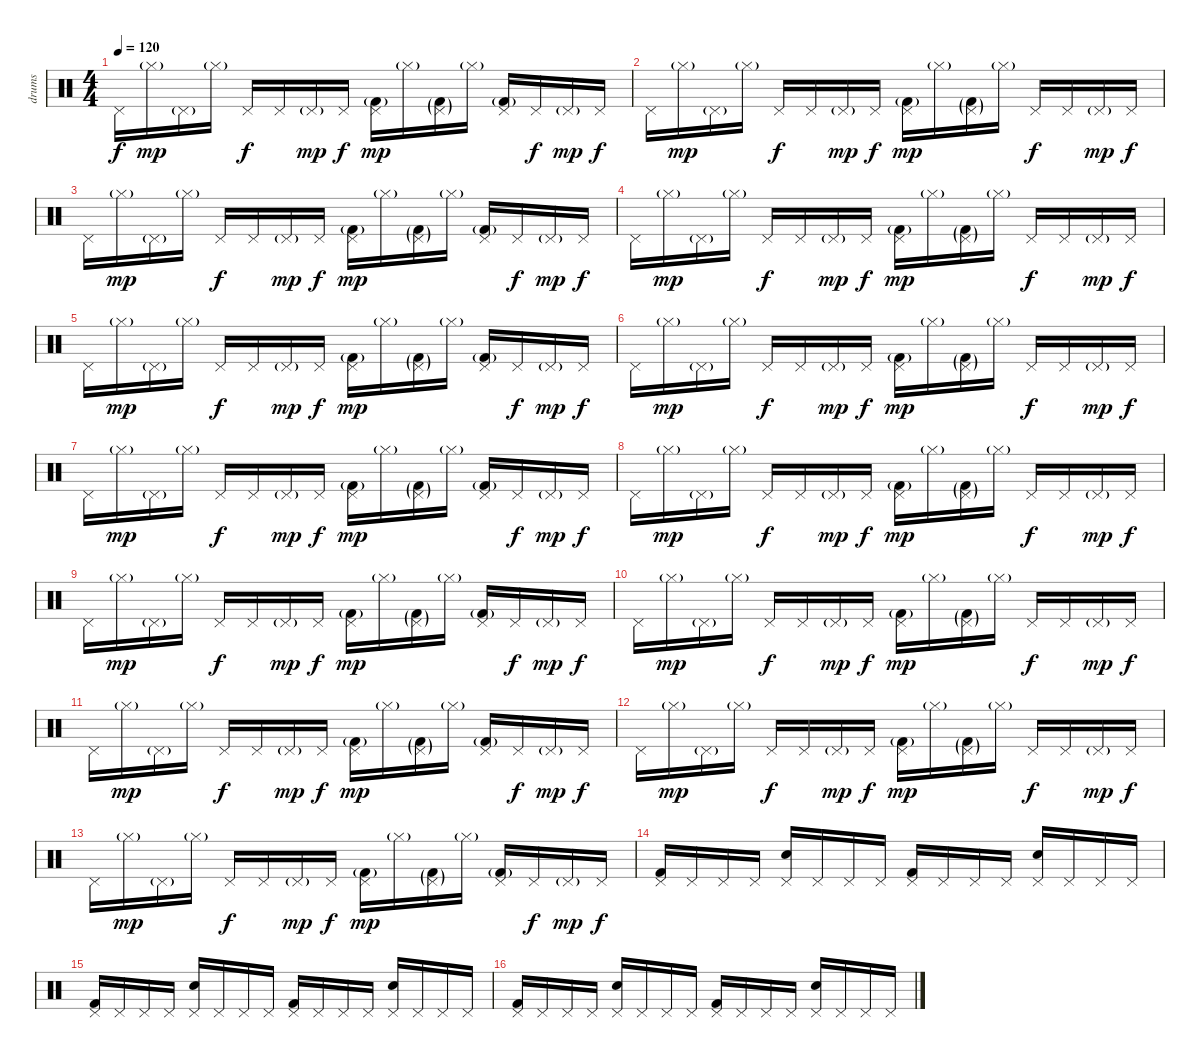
\track ("drums" "drums") {instrument percussion}
\staff {score}
\articulation defaults
\ts (4 4)
\tempo 120
\clef neutral
\ks c "Pedal Hi-Hat (hit)".16{dy f} "Hi-Hat (closed)"{g}.16{dy mp} "Pedal Hi-Hat (hit)"{g}.16 "Hi-Hat (closed)"{g}.16 "Pedal Hi-Hat (hit)".16{dy f} "Pedal Hi-Hat (hit)".16 "Pedal Hi-Hat (hit)"{g}.16{dy mp} "Pedal Hi-Hat (hit)".16{dy f}
("Kick (hit) 2"{g} "Pedal Hi-Hat (hit)").16{dy mp} "Hi-Hat (closed)"{g}.16 ("Kick (hit) 2"{g} "Pedal Hi-Hat (hit)"{g}).16 "Hi-Hat (closed)"{g}.16 ("Kick (hit) 2"{g} "Pedal Hi-Hat (hit)").16 "Pedal Hi-Hat (hit)".16{dy f} "Pedal Hi-Hat (hit)"{g}.16{dy mp} "Pedal Hi-Hat (hit)".16{dy f} |
"Pedal Hi-Hat (hit)".16 "Hi-Hat (closed)"{g}.16{dy mp} "Pedal Hi-Hat (hit)"{g}.16 "Hi-Hat (closed)"{g}.16 "Pedal Hi-Hat (hit)".16{dy f} "Pedal Hi-Hat (hit)".16 "Pedal Hi-Hat (hit)"{g}.16{dy mp} "Pedal Hi-Hat (hit)".16{dy f} ("Kick (hit) 2"{g} "Pedal Hi-Hat (hit)").16{dy mp} "Hi-Hat (closed)"{g}.16 ("Kick (hit) 2"{g} "Pedal Hi-Hat (hit)"{g}).16 "Hi-Hat (closed)"{g}.16 "Pedal Hi-Hat (hit)".16{dy f} "Pedal Hi-Hat (hit)".16 "Pedal Hi-Hat (hit)"{g}.16{dy mp} "Pedal Hi-Hat (hit)".16{dy f} |
"Pedal Hi-Hat (hit)".16 "Hi-Hat (closed)"{g}.16{dy mp} "Pedal Hi-Hat (hit)"{g}.16 "Hi-Hat (closed)"{g}.16 "Pedal Hi-Hat (hit)".16{dy f} "Pedal Hi-Hat (hit)".16 "Pedal Hi-Hat (hit)"{g}.16{dy mp} "Pedal Hi-Hat (hit)".16{dy f} ("Kick (hit) 2"{g} "Pedal Hi-Hat (hit)").16{dy mp} "Hi-Hat (closed)"{g}.16 ("Kick (hit) 2"{g} "Pedal Hi-Hat (hit)"{g}).16 "Hi-Hat (closed)"{g}.16 ("Kick (hit) 2"{g} "Pedal Hi-Hat (hit)").16 "Pedal Hi-Hat (hit)".16{dy f} "Pedal Hi-Hat (hit)"{g}.16{dy mp} "Pedal Hi-Hat (hit)".16{dy f} |
"Pedal Hi-Hat (hit)".16 "Hi-Hat (closed)"{g}.16{dy mp} "Pedal Hi-Hat (hit)"{g}.16 "Hi-Hat (closed)"{g}.16 "Pedal Hi-Hat (hit)".16{dy f} "Pedal Hi-Hat (hit)".16 "Pedal Hi-Hat (hit)"{g}.16{dy mp} "Pedal Hi-Hat (hit)".16{dy f} ("Kick (hit) 2"{g} "Pedal Hi-Hat (hit)").16{dy mp} "Hi-Hat (closed)"{g}.16 ("Kick (hit) 2"{g} "Pedal Hi-Hat (hit)"{g}).16 "Hi-Hat (closed)"{g}.16 "Pedal Hi-Hat (hit)".16{dy f} "Pedal Hi-Hat (hit)".16 "Pedal Hi-Hat (hit)"{g}.16{dy mp} "Pedal Hi-Hat (hit)".16{dy f} |
"Pedal Hi-Hat (hit)".16 "Hi-Hat (closed)"{g}.16{dy mp} "Pedal Hi-Hat (hit)"{g}.16 "Hi-Hat (closed)"{g}.16 "Pedal Hi-Hat (hit)".16{dy f} "Pedal Hi-Hat (hit)".16 "Pedal Hi-Hat (hit)"{g}.16{dy mp} "Pedal Hi-Hat (hit)".16{dy f} ("Kick (hit) 2"{g} "Pedal Hi-Hat (hit)").16{dy mp} "Hi-Hat (closed)"{g}.16 ("Kick (hit) 2"{g} "Pedal Hi-Hat (hit)"{g}).16 "Hi-Hat (closed)"{g}.16 ("Kick (hit) 2"{g} "Pedal Hi-Hat (hit)").16 "Pedal Hi-Hat (hit)".16{dy f} "Pedal Hi-Hat (hit)"{g}.16{dy mp} "Pedal Hi-Hat (hit)".16{dy f} |
"Pedal Hi-Hat (hit)".16 "Hi-Hat (closed)"{g}.16{dy mp} "Pedal Hi-Hat (hit)"{g}.16 "Hi-Hat (closed)"{g}.16 "Pedal Hi-Hat (hit)".16{dy f} "Pedal Hi-Hat (hit)".16 "Pedal Hi-Hat (hit)"{g}.16{dy mp} "Pedal Hi-Hat (hit)".16{dy f} ("Kick (hit) 2"{g} "Pedal Hi-Hat (hit)").16{dy mp} "Hi-Hat (closed)"{g}.16 ("Kick (hit) 2"{g} "Pedal Hi-Hat (hit)"{g}).16 "Hi-Hat (closed)"{g}.16 "Pedal Hi-Hat (hit)".16{dy f} "Pedal Hi-Hat (hit)".16 "Pedal Hi-Hat (hit)"{g}.16{dy mp} "Pedal Hi-Hat (hit)".16{dy f} |
"Pedal Hi-Hat (hit)".16 "Hi-Hat (closed)"{g}.16{dy mp} "Pedal Hi-Hat (hit)"{g}.16 "Hi-Hat (closed)"{g}.16 "Pedal Hi-Hat (hit)".16{dy f} "Pedal Hi-Hat (hit)".16 "Pedal Hi-Hat (hit)"{g}.16{dy mp} "Pedal Hi-Hat (hit)".16{dy f} ("Kick (hit) 2"{g} "Pedal Hi-Hat (hit)").16{dy mp} "Hi-Hat (closed)"{g}.16 ("Kick (hit) 2"{g} "Pedal Hi-Hat (hit)"{g}).16 "Hi-Hat (closed)"{g}.16 ("Kick (hit) 2"{g} "Pedal Hi-Hat (hit)").16 "Pedal Hi-Hat (hit)".16{dy f} "Pedal Hi-Hat (hit)"{g}.16{dy mp} "Pedal Hi-Hat (hit)".16{dy f} |
"Pedal Hi-Hat (hit)".16 "Hi-Hat (closed)"{g}.16{dy mp} "Pedal Hi-Hat (hit)"{g}.16 "Hi-Hat (closed)"{g}.16 "Pedal Hi-Hat (hit)".16{dy f} "Pedal Hi-Hat (hit)".16 "Pedal Hi-Hat (hit)"{g}.16{dy mp} "Pedal Hi-Hat (hit)".16{dy f} ("Kick (hit) 2"{g} "Pedal Hi-Hat (hit)").16{dy mp} "Hi-Hat (closed)"{g}.16 ("Kick (hit) 2"{g} "Pedal Hi-Hat (hit)"{g}).16 "Hi-Hat (closed)"{g}.16 "Pedal Hi-Hat (hit)".16{dy f} "Pedal Hi-Hat (hit)".16 "Pedal Hi-Hat (hit)"{g}.16{dy mp} "Pedal Hi-Hat (hit)".16{dy f} |
"Pedal Hi-Hat (hit)".16 "Hi-Hat (closed)"{g}.16{dy mp} "Pedal Hi-Hat (hit)"{g}.16 "Hi-Hat (closed)"{g}.16 "Pedal Hi-Hat (hit)".16{dy f} "Pedal Hi-Hat (hit)".16 "Pedal Hi-Hat (hit)"{g}.16{dy mp} "Pedal Hi-Hat (hit)".16{dy f} ("Kick (hit) 2"{g} "Pedal Hi-Hat (hit)").16{dy mp} "Hi-Hat (closed)"{g}.16 ("Kick (hit) 2"{g} "Pedal Hi-Hat (hit)"{g}).16 "Hi-Hat (closed)"{g}.16 ("Kick (hit) 2"{g} "Pedal Hi-Hat (hit)").16 "Pedal Hi-Hat (hit)".16{dy f} "Pedal Hi-Hat (hit)"{g}.16{dy mp} "Pedal Hi-Hat (hit)".16{dy f} |
"Pedal Hi-Hat (hit)".16 "Hi-Hat (closed)"{g}.16{dy mp} "Pedal Hi-Hat (hit)"{g}.16 "Hi-Hat (closed)"{g}.16 "Pedal Hi-Hat (hit)".16{dy f} "Pedal Hi-Hat (hit)".16 "Pedal Hi-Hat (hit)"{g}.16{dy mp} "Pedal Hi-Hat (hit)".16{dy f} ("Kick (hit) 2"{g} "Pedal Hi-Hat (hit)").16{dy mp} "Hi-Hat (closed)"{g}.16 ("Kick (hit) 2"{g} "Pedal Hi-Hat (hit)"{g}).16 "Hi-Hat (closed)"{g}.16 "Pedal Hi-Hat (hit)".16{dy f} "Pedal Hi-Hat (hit)".16 "Pedal Hi-Hat (hit)"{g}.16{dy mp} "Pedal Hi-Hat (hit)".16{dy f} |
"Pedal Hi-Hat (hit)".16 "Hi-Hat (closed)"{g}.16{dy mp} "Pedal Hi-Hat (hit)"{g}.16 "Hi-Hat (closed)"{g}.16 "Pedal Hi-Hat (hit)".16{dy f} "Pedal Hi-Hat (hit)".16 "Pedal Hi-Hat (hit)"{g}.16{dy mp} "Pedal Hi-Hat (hit)".16{dy f} ("Kick (hit) 2"{g} "Pedal Hi-Hat (hit)").16{dy mp} "Hi-Hat (closed)"{g}.16 ("Kick (hit) 2"{g} "Pedal Hi-Hat (hit)"{g}).16 "Hi-Hat (closed)"{g}.16 ("Kick (hit) 2"{g} "Pedal Hi-Hat (hit)").16 "Pedal Hi-Hat (hit)".16{dy f} "Pedal Hi-Hat (hit)"{g}.16{dy mp} "Pedal Hi-Hat (hit)".16{dy f} |
"Pedal Hi-Hat (hit)".16 "Hi-Hat (closed)"{g}.16{dy mp} "Pedal Hi-Hat (hit)"{g}.16 "Hi-Hat (closed)"{g}.16 "Pedal Hi-Hat (hit)".16{dy f} "Pedal Hi-Hat (hit)".16 "Pedal Hi-Hat (hit)"{g}.16{dy mp} "Pedal Hi-Hat (hit)".16{dy f} ("Kick (hit) 2"{g} "Pedal Hi-Hat (hit)").16{dy mp} "Hi-Hat (closed)"{g}.16 ("Kick (hit) 2"{g} "Pedal Hi-Hat (hit)"{g}).16 "Hi-Hat (closed)"{g}.16 "Pedal Hi-Hat (hit)".16{dy f} "Pedal Hi-Hat (hit)".16 "Pedal Hi-Hat (hit)"{g}.16{dy mp} "Pedal Hi-Hat (hit)".16{dy f} |
"Pedal Hi-Hat (hit)".16 "Hi-Hat (closed)"{g}.16{dy mp} "Pedal Hi-Hat (hit)"{g}.16 "Hi-Hat (closed)"{g}.16 "Pedal Hi-Hat (hit)".16{dy f} "Pedal Hi-Hat (hit)".16 "Pedal Hi-Hat (hit)"{g}.16{dy mp} "Pedal Hi-Hat (hit)".16{dy f} ("Kick (hit) 2"{g} "Pedal Hi-Hat (hit)").16{dy mp} "Hi-Hat (closed)"{g}.16 ("Kick (hit) 2"{g} "Pedal Hi-Hat (hit)"{g}).16 "Hi-Hat (closed)"{g}.16 ("Kick (hit) 2"{g} "Pedal Hi-Hat (hit)").16 "Pedal Hi-Hat (hit)".16{dy f} "Pedal Hi-Hat (hit)"{g}.16{dy mp} "Pedal Hi-Hat (hit)".16{dy f} |
("Kick (hit) 2" "Pedal Hi-Hat (hit)").16{volume 14} "Pedal Hi-Hat (hit)".16 "Pedal Hi-Hat (hit)".16 "Pedal Hi-Hat (hit)".16 ("Electric Snare (hit)" "Pedal Hi-Hat (hit)").16 "Pedal Hi-Hat (hit)".16 "Pedal Hi-Hat (hit)".16 "Pedal Hi-Hat (hit)".16 ("Kick (hit) 2" "Pedal Hi-Hat (hit)").16 "Pedal Hi-Hat (hit)".16 "Pedal Hi-Hat (hit)".16 "Pedal Hi-Hat (hit)".16 ("Electric Snare (hit)" "Pedal Hi-Hat (hit)").16 "Pedal Hi-Hat (hit)".16 "Pedal Hi-Hat (hit)".16 "Pedal Hi-Hat (hit)".16 |
("Kick (hit) 2" "Pedal Hi-Hat (hit)").16 "Pedal Hi-Hat (hit)".16 "Pedal Hi-Hat (hit)".16 "Pedal Hi-Hat (hit)".16 ("Electric Snare (hit)" "Pedal Hi-Hat (hit)").16 "Pedal Hi-Hat (hit)".16 "Pedal Hi-Hat (hit)".16 "Pedal Hi-Hat (hit)".16 ("Kick (hit) 2" "Pedal Hi-Hat (hit)").16 "Pedal Hi-Hat (hit)".16 "Pedal Hi-Hat (hit)".16 "Pedal Hi-Hat (hit)".16 ("Electric Snare (hit)" "Pedal Hi-Hat (hit)").16 "Pedal Hi-Hat (hit)".16 "Pedal Hi-Hat (hit)".16 "Pedal Hi-Hat (hit)".16 |
("Kick (hit) 2" "Pedal Hi-Hat (hit)").16 "Pedal Hi-Hat (hit)".16 "Pedal Hi-Hat (hit)".16 "Pedal Hi-Hat (hit)".16 ("Electric Snare (hit)" "Pedal Hi-Hat (hit)").16 "Pedal Hi-Hat (hit)".16 "Pedal Hi-Hat (hit)".16 "Pedal Hi-Hat (hit)".16 ("Kick (hit) 2" "Pedal Hi-Hat (hit)").16 "Pedal Hi-Hat (hit)".16 "Pedal Hi-Hat (hit)".16 "Pedal Hi-Hat (hit)".16 ("Electric Snare (hit)" "Pedal Hi-Hat (hit)").16 "Pedal Hi-Hat (hit)".16 "Pedal Hi-Hat (hit)".16 "Pedal Hi-Hat (hit)".16
